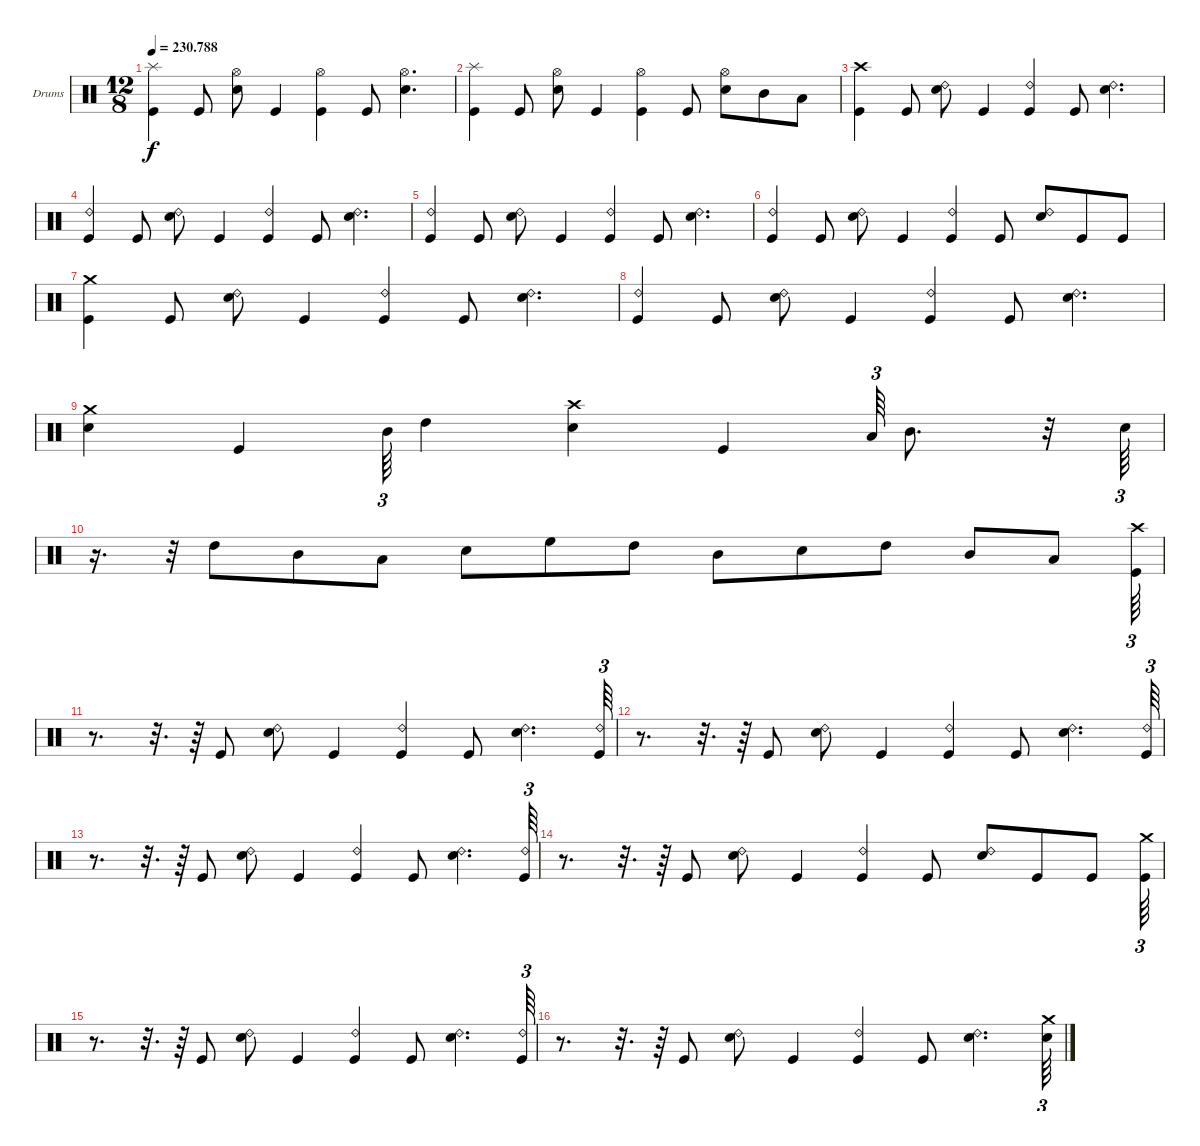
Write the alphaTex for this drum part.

\bracketExtendMode groupsimilarinstruments
\firstSystemTrackNameOrientation horizontal
\otherSystemsTrackNameOrientation horizontal
\track ("Ударные" "Drums") {instrument percussion}
\staff {score}
\articulation defaults
\ts (12 8)
\tempo
230.788
\accidentals auto
\clef neutral
\ottava regular
\simile none
\ks c
("Splash (hit)" "Kick (hit)").4{dy f} "Kick (hit)".8 ("Hi-Hat (open)" "Snare (hit) 2").8 "Kick (hit)".4 ("Hi-Hat (open)" "Kick (hit)").4 "Kick (hit)".8 ("Hi-Hat (open)" "Snare (hit) 2").4{d} |
("Splash (hit)" "Kick (hit)").4 "Kick (hit)".8 ("Hi-Hat (open)" "Snare (hit) 2").8 "Kick (hit)".4 ("Hi-Hat (open)" "Kick (hit)").4 "Kick (hit)".8 ("Snare (hit) 2" "Hi-Hat (open)").8 "Mid Tom (hit)".8 "Low Tom (hit)".8 |
("Crash high (hit)" "Kick (hit)").4 "Kick (hit)".8 ("Ride (bell) 2" "Snare (hit) 2").8 "Kick (hit)".4 ("Ride (bell) 2" "Kick (hit)").4 "Kick (hit)".8 ("Ride (bell) 2" "Snare (hit) 2").4{d} |
("Ride (bell) 2" "Kick (hit)").4 "Kick (hit)".8 ("Ride (bell) 2" "Snare (hit) 2").8 "Kick (hit)".4 ("Ride (bell) 2" "Kick (hit)").4 "Kick (hit)".8 ("Ride (bell) 2" "Snare (hit) 2").4{d} |
("Kick (hit)" "Ride (bell) 2").4 "Kick (hit)".8 ("Ride (bell) 2" "Snare (hit) 2").8 "Kick (hit)".4 ("Kick (hit)" "Ride (bell) 2").4 "Kick (hit)".8 ("Ride (bell) 2" "Snare (hit) 2").4{d} |
("Kick (hit)" "Ride (bell) 2").4 "Kick (hit)".8 ("Ride (bell) 2" "Snare (hit) 2").8 "Kick (hit)".4 ("Ride (bell) 2" "Kick (hit)").4 "Kick (hit)".8 ("Ride (bell) 2" "Snare (hit) 2").8 "Kick (hit)".8 "Kick (hit)".8 |
("Crash medium (hit)" "Kick (hit)").4 "Kick (hit)".8 ("Ride (bell) 2" "Snare (hit) 2").8 "Kick (hit)".4 ("Ride (bell) 2" "Kick (hit)").4 "Kick (hit)".8 ("Ride (bell) 2" "Snare (hit) 2").4{d} |
("Ride (bell) 2" "Kick (hit)").4 "Kick (hit)".8 ("Ride (bell) 2" "Snare (hit) 2").8 "Kick (hit)".4 ("Ride (bell) 2" "Kick (hit)").4 "Kick (hit)".8 ("Ride (bell) 2" "Snare (hit) 2").4{d} |
("Crash medium (hit)" "Snare (hit) 2").4 "Kick (hit)".4 "Mid Tom (hit)".64{tu (3 2)} "High Tom (hit)".4 ("Crash high (hit)" "Snare (hit) 2").4 "Kick (hit)".4 "Low Tom (hit)".64{tu (3 2)} "Mid Tom (hit)".8{d} r.32 "Snare (hit) 2".64{tu (3 2)} |
r.16{d} r.32{tu (3 2)} "High Tom (hit)".8 "Mid Tom (hit)".8 "Low Tom (hit)".8 "Snare (hit) 2".8 "High Floor Tom (hit)".8 "High Tom (hit)".8 "Mid Tom (hit)".8 "Snare (hit) 2".8 "High Tom (hit)".8 "Mid Tom (hit)".8 "Low Tom (hit)".8 ("Crash high (hit)" "Kick (hit)").64{tu (3 2)} |
r.8{d} r.32{d} r.64 "Kick (hit)".8 ("Ride (bell) 2" "Snare (hit) 2").8 "Kick (hit)".4 ("Ride (bell) 2" "Kick (hit)").4 "Kick (hit)".8 ("Ride (bell) 2" "Snare (hit) 2").4{d} ("Ride (bell) 2" "Kick (hit)").64{tu (3 2)} |
r.8{d} r.32{d} r.64 "Kick (hit)".8 ("Ride (bell) 2" "Snare (hit) 2").8 "Kick (hit)".4 ("Ride (bell) 2" "Kick (hit)").4 "Kick (hit)".8 ("Ride (bell) 2" "Snare (hit) 2").4{d} ("Kick (hit)" "Ride (bell) 2").64{tu (3 2)} |
r.8{d} r.32{d} r.64 "Kick (hit)".8 ("Ride (bell) 2" "Snare (hit) 2").8 "Kick (hit)".4 ("Kick (hit)" "Ride (bell) 2").4 "Kick (hit)".8 ("Ride (bell) 2" "Snare (hit) 2").4{d} ("Kick (hit)" "Ride (bell) 2").64{tu (3 2)} |
r.8{d} r.32{d} r.64 "Kick (hit)".8 ("Ride (bell) 2" "Snare (hit) 2").8 "Kick (hit)".4 ("Ride (bell) 2" "Kick (hit)").4 "Kick (hit)".8 ("Ride (bell) 2" "Snare (hit) 2").8 "Kick (hit)".8 "Kick (hit)".8 ("Crash medium (hit)" "Kick (hit)").64{tu (3 2)} |
r.8{d} r.32{d} r.64 "Kick (hit)".8 ("Ride (bell) 2" "Snare (hit) 2").8 "Kick (hit)".4 ("Ride (bell) 2" "Kick (hit)").4 "Kick (hit)".8 ("Ride (bell) 2" "Snare (hit) 2").4{d} ("Ride (bell) 2" "Kick (hit)").64{tu (3 2)} |
r.8{d} r.32{d} r.64 "Kick (hit)".8 ("Ride (bell) 2" "Snare (hit) 2").8 "Kick (hit)".4 ("Ride (bell) 2" "Kick (hit)").4 "Kick (hit)".8 ("Ride (bell) 2" "Snare (hit) 2").4{d} ("Crash medium (hit)" "Snare (hit) 2").64{tu (3 2)}
